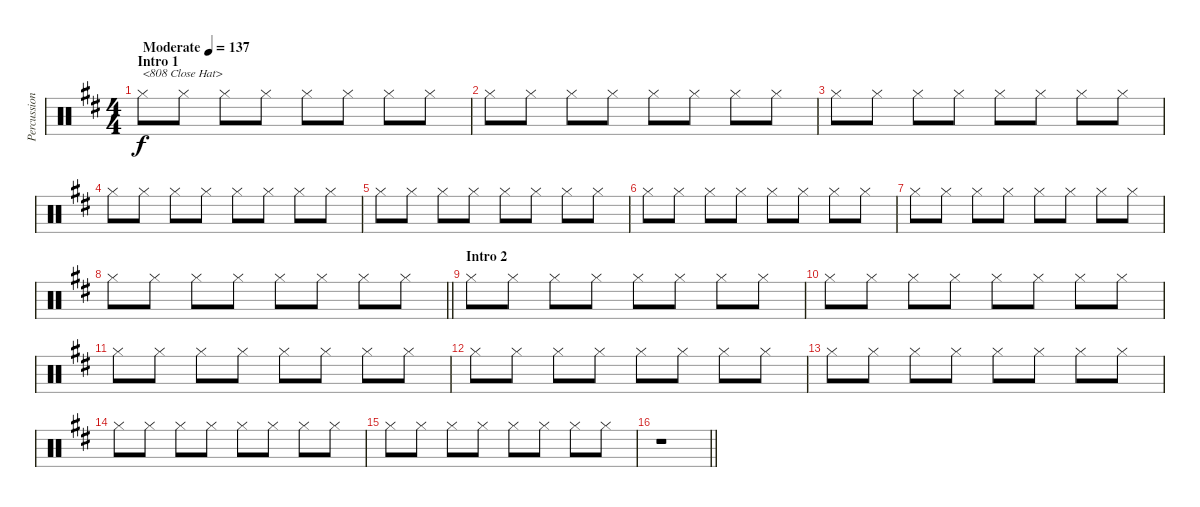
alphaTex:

\track ("Percussion" "Percussion") {instrument percussion}
\staff {score}
\articulation defaults
\ts (4 4)
\section ("" "Intro 1")
\tempo (137 "Moderate")
\clef neutral
\ks d "Hi-Hat (closed)".8{txt "<808 Close Hat>" dy f} "Hi-Hat (closed)".8 "Hi-Hat (closed)".8 "Hi-Hat (closed)".8 "Hi-Hat (closed)".8 "Hi-Hat (closed)".8 "Hi-Hat (closed)".8 "Hi-Hat (closed)".8
|
"Hi-Hat (closed)".8 "Hi-Hat (closed)".8 "Hi-Hat (closed)".8 "Hi-Hat (closed)".8 "Hi-Hat (closed)".8 "Hi-Hat (closed)".8 "Hi-Hat (closed)".8 "Hi-Hat (closed)".8 |
"Hi-Hat (closed)".8 "Hi-Hat (closed)".8 "Hi-Hat (closed)".8 "Hi-Hat (closed)".8 "Hi-Hat (closed)".8 "Hi-Hat (closed)".8 "Hi-Hat (closed)".8 "Hi-Hat (closed)".8 |
"Hi-Hat (closed)".8 "Hi-Hat (closed)".8 "Hi-Hat (closed)".8 "Hi-Hat (closed)".8 "Hi-Hat (closed)".8 "Hi-Hat (closed)".8 "Hi-Hat (closed)".8 "Hi-Hat (closed)".8 |
"Hi-Hat (closed)".8 "Hi-Hat (closed)".8 "Hi-Hat (closed)".8 "Hi-Hat (closed)".8 "Hi-Hat (closed)".8 "Hi-Hat (closed)".8 "Hi-Hat (closed)".8 "Hi-Hat (closed)".8 |
"Hi-Hat (closed)".8 "Hi-Hat (closed)".8 "Hi-Hat (closed)".8 "Hi-Hat (closed)".8 "Hi-Hat (closed)".8 "Hi-Hat (closed)".8 "Hi-Hat (closed)".8 "Hi-Hat (closed)".8 |
"Hi-Hat (closed)".8 "Hi-Hat (closed)".8 "Hi-Hat (closed)".8 "Hi-Hat (closed)".8 "Hi-Hat (closed)".8 "Hi-Hat (closed)".8 "Hi-Hat (closed)".8 "Hi-Hat (closed)".8 |
\barLineRight lightlight "Hi-Hat (closed)".8 "Hi-Hat (closed)".8 "Hi-Hat (closed)".8 "Hi-Hat (closed)".8 "Hi-Hat (closed)".8 "Hi-Hat (closed)".8 "Hi-Hat (closed)".8 "Hi-Hat (closed)".8
|
\section ("" "Intro 2")
"Hi-Hat (closed)".8 "Hi-Hat (closed)".8 "Hi-Hat (closed)".8 "Hi-Hat (closed)".8 "Hi-Hat (closed)".8 "Hi-Hat (closed)".8 "Hi-Hat (closed)".8 "Hi-Hat (closed)".8 |
"Hi-Hat (closed)".8 "Hi-Hat (closed)".8 "Hi-Hat (closed)".8 "Hi-Hat (closed)".8 "Hi-Hat (closed)".8 "Hi-Hat (closed)".8 "Hi-Hat (closed)".8 "Hi-Hat (closed)".8 |
"Hi-Hat (closed)".8 "Hi-Hat (closed)".8 "Hi-Hat (closed)".8 "Hi-Hat (closed)".8 "Hi-Hat (closed)".8 "Hi-Hat (closed)".8 "Hi-Hat (closed)".8 "Hi-Hat (closed)".8 |
"Hi-Hat (closed)".8 "Hi-Hat (closed)".8 "Hi-Hat (closed)".8 "Hi-Hat (closed)".8 "Hi-Hat (closed)".8 "Hi-Hat (closed)".8 "Hi-Hat (closed)".8 "Hi-Hat (closed)".8 |
"Hi-Hat (closed)".8 "Hi-Hat (closed)".8 "Hi-Hat (closed)".8 "Hi-Hat (closed)".8 "Hi-Hat (closed)".8 "Hi-Hat (closed)".8 "Hi-Hat (closed)".8 "Hi-Hat (closed)".8 |
"Hi-Hat (closed)".8 "Hi-Hat (closed)".8 "Hi-Hat (closed)".8 "Hi-Hat (closed)".8 "Hi-Hat (closed)".8 "Hi-Hat (closed)".8 "Hi-Hat (closed)".8 "Hi-Hat (closed)".8 |
"Hi-Hat (closed)".8 "Hi-Hat (closed)".8 "Hi-Hat (closed)".8 "Hi-Hat (closed)".8 "Hi-Hat (closed)".8 "Hi-Hat (closed)".8 "Hi-Hat (closed)".8 "Hi-Hat (closed)".8 |
\barLineRight lightlight
r.1
